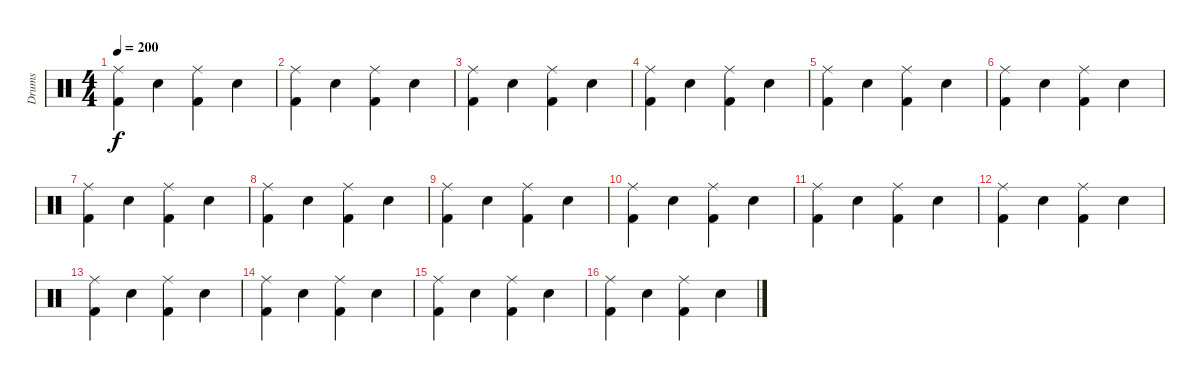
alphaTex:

\track ("Drums" "Drums") {instrument percussion}
\staff {score}
\articulation defaults
\ts (4 4)
\tempo 200
\clef neutral
\ks c
("Kick (hit) 2" "Ride (middle)").4{dy f} "Electric Snare (hit)".4 ("Kick (hit) 2" "Ride (middle)").4 "Electric Snare (hit)".4 |
("Kick (hit) 2" "Ride (middle)").4 "Electric Snare (hit)".4 ("Kick (hit) 2" "Ride (middle)").4 "Electric Snare (hit)".4 |
("Kick (hit) 2" "Ride (middle)").4 "Electric Snare (hit)".4 ("Kick (hit) 2" "Ride (middle)").4 "Electric Snare (hit)".4 |
("Kick (hit) 2" "Ride (middle)").4 "Electric Snare (hit)".4 ("Kick (hit) 2" "Ride (middle)").4 "Electric Snare (hit)".4 |
("Kick (hit) 2" "Ride (middle)").4 "Electric Snare (hit)".4 ("Kick (hit) 2" "Ride (middle)").4 "Electric Snare (hit)".4 |
("Kick (hit) 2" "Ride (middle)").4 "Electric Snare (hit)".4 ("Kick (hit) 2" "Ride (middle)").4 "Electric Snare (hit)".4 |
("Kick (hit) 2" "Ride (middle)").4 "Electric Snare (hit)".4 ("Kick (hit) 2" "Ride (middle)").4 "Electric Snare (hit)".4 |
("Kick (hit) 2" "Ride (middle)").4 "Electric Snare (hit)".4 ("Kick (hit) 2" "Ride (middle)").4 "Electric Snare (hit)".4 |
("Kick (hit) 2" "Ride (middle)").4 "Electric Snare (hit)".4 ("Kick (hit) 2" "Ride (middle)").4 "Electric Snare (hit)".4 |
("Kick (hit) 2" "Ride (middle)").4 "Electric Snare (hit)".4 ("Kick (hit) 2" "Ride (middle)").4 "Electric Snare (hit)".4 |
("Kick (hit) 2" "Ride (middle)").4 "Electric Snare (hit)".4 ("Kick (hit) 2" "Ride (middle)").4 "Electric Snare (hit)".4 |
("Kick (hit) 2" "Ride (middle)").4 "Electric Snare (hit)".4 ("Kick (hit) 2" "Ride (middle)").4 "Electric Snare (hit)".4 |
("Kick (hit) 2" "Ride (middle)").4 "Electric Snare (hit)".4 ("Kick (hit) 2" "Ride (middle)").4 "Electric Snare (hit)".4 |
("Kick (hit) 2" "Ride (middle)").4 "Electric Snare (hit)".4 ("Kick (hit) 2" "Ride (middle)").4 "Electric Snare (hit)".4 |
("Kick (hit) 2" "Ride (middle)").4 "Electric Snare (hit)".4 ("Kick (hit) 2" "Ride (middle)").4 "Electric Snare (hit)".4 |
("Kick (hit) 2" "Ride (middle)").4 "Electric Snare (hit)".4 ("Kick (hit) 2" "Ride (middle)").4 "Electric Snare (hit)".4
